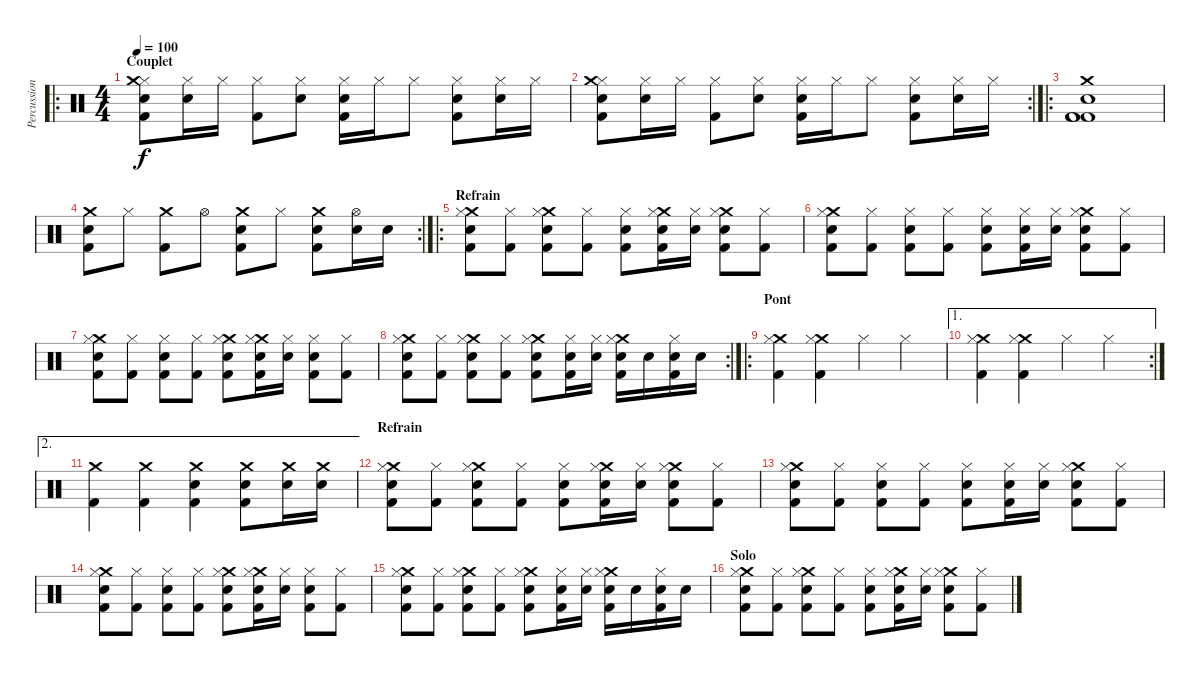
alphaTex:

\track ("Percussions" "Percussion") {instrument percussion}
\staff {score}
\articulation defaults
\ro
\ts (4 4)
\section ("" "Couplet")
\tempo 100
\clef neutral
\ks c
("Hi-Hat (closed)" "Crash medium (hit)" "Kick (hit) 2" "Electric Snare (hit)").8{dy f} ("Hi-Hat (closed)" "Electric Snare (hit)").16 "Hi-Hat (closed)".16 ("Hi-Hat (closed)" "Kick (hit) 2").8 ("Hi-Hat (closed)" "Electric Snare (hit)").8 ("Hi-Hat (closed)" "Kick (hit) 2" "Electric Snare (hit)").16 "Hi-Hat (closed)".16 "Hi-Hat (closed)".8 ("Hi-Hat (closed)" "Kick (hit) 2" "Electric Snare (hit)").8 ("Hi-Hat (closed)" "Electric Snare (hit)").16 "Hi-Hat (closed)".16 |
\rc 2
("Hi-Hat (closed)" "Crash medium (hit)" "Kick (hit) 2" "Electric Snare (hit)").8 ("Hi-Hat (closed)" "Electric Snare (hit)").16 "Hi-Hat (closed)".16 ("Hi-Hat (closed)" "Kick (hit) 2").8 ("Hi-Hat (closed)" "Electric Snare (hit)").8 ("Hi-Hat (closed)" "Kick (hit) 2" "Electric Snare (hit)").16 "Hi-Hat (closed)".16 "Hi-Hat (closed)".8 ("Hi-Hat (closed)" "Kick (hit) 2" "Electric Snare (hit)").8 ("Hi-Hat (closed)" "Electric Snare (hit)").16 "Hi-Hat (closed)".16 |
\ro
("Crash medium (hit)" "Kick (hit) 2" "Electric Snare (hit)" "Kick (hit) 2" "Kick (hit) 2").1 |
\rc 2
("Crash medium (hit)" "Kick (hit) 2" "Electric Snare (hit)").8 "Hi-Hat (closed)".8 ("Crash medium (hit)" "Kick (hit) 2").8 "Hi-Hat (open)".8 ("Crash medium (hit)" "Kick (hit) 2" "Electric Snare (hit)").8 "Hi-Hat (closed)".8 ("Crash medium (hit)" "Kick (hit) 2" "Electric Snare (hit)").8 ("Hi-Hat (open)" "Electric Snare (hit)").16 "Electric Snare (hit)".16 |
\ro
\section ("" "Refrain")
("Crash medium (hit)" "Kick (hit) 2" "Hi-Hat (closed)" "Electric Snare (hit)").8 ("Kick (hit) 2" "Hi-Hat (closed)").8 ("Crash medium (hit)" "Kick (hit) 2" "Hi-Hat (closed)" "Electric Snare (hit)").8 ("Kick (hit) 2" "Hi-Hat (closed)").8 ("Kick (hit) 2" "Hi-Hat (closed)" "Electric Snare (hit)").8 ("Crash medium (hit)" "Kick (hit) 2" "Hi-Hat (closed)" "Electric Snare (hit)").16 ("Hi-Hat (closed)" "Electric Snare (hit)").16 ("Crash medium (hit)" "Kick (hit) 2" "Hi-Hat (closed)" "Electric Snare (hit)").8 ("Kick (hit) 2" "Hi-Hat (closed)").8 |
("Crash medium (hit)" "Kick (hit) 2" "Hi-Hat (closed)" "Electric Snare (hit)").8 ("Kick (hit) 2" "Hi-Hat (closed)").8 ("Kick (hit) 2" "Hi-Hat (closed)" "Electric Snare (hit)").8 ("Kick (hit) 2" "Hi-Hat (closed)").8 ("Kick (hit) 2" "Hi-Hat (closed)" "Electric Snare (hit)").8 ("Kick (hit) 2" "Hi-Hat (closed)" "Electric Snare (hit)").16 ("Hi-Hat (closed)" "Electric Snare (hit)").16 ("Crash medium (hit)" "Kick (hit) 2" "Hi-Hat (closed)" "Electric Snare (hit)").8 ("Kick (hit) 2" "Hi-Hat (closed)").8 |
("Crash medium (hit)" "Kick (hit) 2" "Hi-Hat (closed)" "Electric Snare (hit)").8 ("Kick (hit) 2" "Hi-Hat (closed)").8 ("Kick (hit) 2" "Hi-Hat (closed)" "Electric Snare (hit)").8 ("Kick (hit) 2" "Hi-Hat (closed)").8 ("Crash medium (hit)" "Kick (hit) 2" "Hi-Hat (closed)" "Electric Snare (hit)").8 ("Crash medium (hit)" "Kick (hit) 2" "Hi-Hat (closed)" "Electric Snare (hit)").16 ("Hi-Hat (closed)" "Electric Snare (hit)").16 ("Kick (hit) 2" "Hi-Hat (closed)" "Electric Snare (hit)").8 ("Kick (hit) 2" "Hi-Hat (closed)").8 |
\rc 2
("Crash medium (hit)" "Kick (hit) 2" "Hi-Hat (closed)" "Electric Snare (hit)").8 ("Kick (hit) 2" "Hi-Hat (closed)").8 ("Crash medium (hit)" "Kick (hit) 2" "Hi-Hat (closed)" "Electric Snare (hit)").8 ("Kick (hit) 2" "Hi-Hat (closed)").8 ("Crash medium (hit)" "Kick (hit) 2" "Hi-Hat (closed)" "Electric Snare (hit)").8 ("Kick (hit) 2" "Hi-Hat (closed)" "Electric Snare (hit)").16 ("Hi-Hat (closed)" "Electric Snare (hit)").16 ("Crash medium (hit)" "Kick (hit) 2" "Hi-Hat (closed)" "Electric Snare (hit)").16 "Electric Snare (hit)".16 ("Kick (hit) 2" "Hi-Hat (closed)" "Electric Snare (hit)").16 "Electric Snare (hit)".16 |
\ro
\section ("" "Pont")
("Crash medium (hit)" "Kick (hit) 2" "Hi-Hat (closed)").4 ("Crash medium (hit)" "Kick (hit) 2" "Hi-Hat (closed)").4 "Hi-Hat (closed)".4 "Hi-Hat (closed)".4 |
\ae 1
\rc 2
("Crash medium (hit)" "Kick (hit) 2" "Hi-Hat (closed)").4 ("Crash medium (hit)" "Kick (hit) 2" "Hi-Hat (closed)").4 "Hi-Hat (closed)".4 "Hi-Hat (closed)".4 |
\ae 2
("Crash medium (hit)" "Kick (hit) 2").4 ("Crash medium (hit)" "Kick (hit) 2").4 ("Crash medium (hit)" "Kick (hit) 2" "Electric Snare (hit)").4 ("Crash medium (hit)" "Kick (hit) 2" "Electric Snare (hit)").8 ("Crash medium (hit)" "Electric Snare (hit)").16 ("Crash medium (hit)" "Electric Snare (hit)").16 |
\section ("" "Refrain")
("Crash medium (hit)" "Kick (hit) 2" "Hi-Hat (closed)" "Electric Snare (hit)").8 ("Kick (hit) 2" "Hi-Hat (closed)").8 ("Crash medium (hit)" "Kick (hit) 2" "Hi-Hat (closed)" "Electric Snare (hit)").8 ("Kick (hit) 2" "Hi-Hat (closed)").8 ("Kick (hit) 2" "Hi-Hat (closed)" "Electric Snare (hit)").8 ("Crash medium (hit)" "Kick (hit) 2" "Hi-Hat (closed)" "Electric Snare (hit)").16 ("Hi-Hat (closed)" "Electric Snare (hit)").16 ("Crash medium (hit)" "Kick (hit) 2" "Hi-Hat (closed)" "Electric Snare (hit)").8 ("Kick (hit) 2" "Hi-Hat (closed)").8 |
("Crash medium (hit)" "Kick (hit) 2" "Hi-Hat (closed)" "Electric Snare (hit)").8 ("Kick (hit) 2" "Hi-Hat (closed)").8 ("Kick (hit) 2" "Hi-Hat (closed)" "Electric Snare (hit)").8 ("Kick (hit) 2" "Hi-Hat (closed)").8 ("Kick (hit) 2" "Hi-Hat (closed)" "Electric Snare (hit)").8 ("Kick (hit) 2" "Hi-Hat (closed)" "Electric Snare (hit)").16 ("Hi-Hat (closed)" "Electric Snare (hit)").16 ("Crash medium (hit)" "Kick (hit) 2" "Hi-Hat (closed)" "Electric Snare (hit)").8 ("Kick (hit) 2" "Hi-Hat (closed)").8 |
("Crash medium (hit)" "Kick (hit) 2" "Hi-Hat (closed)" "Electric Snare (hit)").8 ("Kick (hit) 2" "Hi-Hat (closed)").8 ("Kick (hit) 2" "Hi-Hat (closed)" "Electric Snare (hit)").8 ("Kick (hit) 2" "Hi-Hat (closed)").8 ("Crash medium (hit)" "Kick (hit) 2" "Hi-Hat (closed)" "Electric Snare (hit)").8 ("Crash medium (hit)" "Kick (hit) 2" "Hi-Hat (closed)" "Electric Snare (hit)").16 ("Hi-Hat (closed)" "Electric Snare (hit)").16 ("Kick (hit) 2" "Hi-Hat (closed)" "Electric Snare (hit)").8 ("Kick (hit) 2" "Hi-Hat (closed)").8 |
("Crash medium (hit)" "Kick (hit) 2" "Hi-Hat (closed)" "Electric Snare (hit)").8 ("Kick (hit) 2" "Hi-Hat (closed)").8 ("Crash medium (hit)" "Kick (hit) 2" "Hi-Hat (closed)" "Electric Snare (hit)").8 ("Kick (hit) 2" "Hi-Hat (closed)").8 ("Crash medium (hit)" "Kick (hit) 2" "Hi-Hat (closed)" "Electric Snare (hit)").8 ("Kick (hit) 2" "Hi-Hat (closed)" "Electric Snare (hit)").16 ("Hi-Hat (closed)" "Electric Snare (hit)").16 ("Crash medium (hit)" "Kick (hit) 2" "Hi-Hat (closed)" "Electric Snare (hit)").16 "Electric Snare (hit)".16 ("Kick (hit) 2" "Hi-Hat (closed)" "Electric Snare (hit)").16 "Electric Snare (hit)".16 |
\section ("" "Solo")
("Crash medium (hit)" "Kick (hit) 2" "Hi-Hat (closed)" "Electric Snare (hit)").8 ("Kick (hit) 2" "Hi-Hat (closed)").8 ("Crash medium (hit)" "Kick (hit) 2" "Hi-Hat (closed)" "Electric Snare (hit)").8 ("Kick (hit) 2" "Hi-Hat (closed)").8 ("Kick (hit) 2" "Hi-Hat (closed)" "Electric Snare (hit)").8 ("Crash medium (hit)" "Kick (hit) 2" "Hi-Hat (closed)" "Electric Snare (hit)").16 ("Hi-Hat (closed)" "Electric Snare (hit)").16 ("Crash medium (hit)" "Kick (hit) 2" "Hi-Hat (closed)" "Electric Snare (hit)").8 ("Kick (hit) 2" "Hi-Hat (closed)").8
